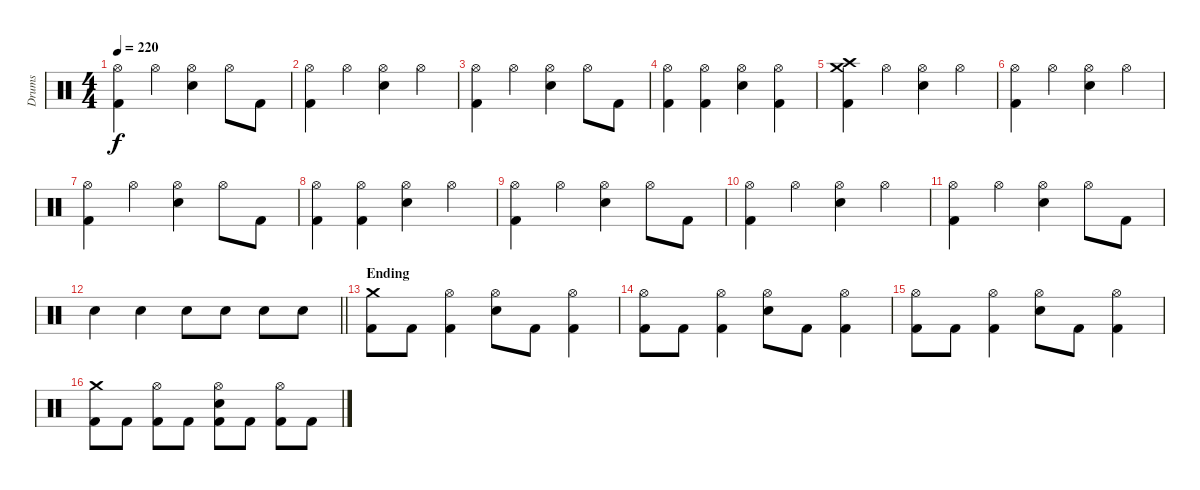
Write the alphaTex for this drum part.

\track ("Drums" "Drums") {instrument percussion}
\staff {score}
\articulation defaults
\ts (4 4)
\tempo 220
\clef neutral
\ks c
("Hi-Hat (open)" "Kick (hit) 2").4{dy f} "Hi-Hat (open)".4 ("Hi-Hat (open)" "Electric Snare (hit)").4 "Hi-Hat (open)".8 "Kick (hit) 2".8 |
("Hi-Hat (open)" "Kick (hit) 2").4 "Hi-Hat (open)".4 ("Hi-Hat (open)" "Electric Snare (hit)").4 "Hi-Hat (open)".4 |
("Hi-Hat (open)" "Kick (hit) 2").4 "Hi-Hat (open)".4 ("Hi-Hat (open)" "Electric Snare (hit)").4 "Hi-Hat (open)".8 "Kick (hit) 2".8 |
("Hi-Hat (open)" "Kick (hit) 2").4 ("Hi-Hat (open)" "Kick (hit) 2").4 ("Hi-Hat (open)" "Electric Snare (hit)").4 ("Hi-Hat (open)" "Kick (hit) 2").4 |
("Crash medium (hit)" "Crash high (hit)" "Kick (hit) 2").4 "Hi-Hat (open)".4 ("Hi-Hat (open)" "Electric Snare (hit)").4 "Hi-Hat (open)".4 |
("Hi-Hat (open)" "Kick (hit) 2").4 "Hi-Hat (open)".4 ("Hi-Hat (open)" "Electric Snare (hit)").4 "Hi-Hat (open)".4 |
("Hi-Hat (open)" "Kick (hit) 2").4 "Hi-Hat (open)".4 ("Hi-Hat (open)" "Electric Snare (hit)").4 "Hi-Hat (open)".8 "Kick (hit) 2".8 |
("Hi-Hat (open)" "Kick (hit) 2").4 ("Hi-Hat (open)" "Kick (hit) 2").4 ("Hi-Hat (open)" "Electric Snare (hit)").4 "Hi-Hat (open)".4 |
("Hi-Hat (open)" "Kick (hit) 2").4 "Hi-Hat (open)".4 ("Hi-Hat (open)" "Electric Snare (hit)").4 "Hi-Hat (open)".8 "Kick (hit) 2".8 |
("Hi-Hat (open)" "Kick (hit) 2").4 "Hi-Hat (open)".4 ("Hi-Hat (open)" "Electric Snare (hit)").4 "Hi-Hat (open)".4 |
("Hi-Hat (open)" "Kick (hit) 2").4 "Hi-Hat (open)".4 ("Hi-Hat (open)" "Electric Snare (hit)").4 "Hi-Hat (open)".8 "Kick (hit) 2".8 |
\barLineRight lightlight "Electric Snare (hit)".4 "Electric Snare (hit)".4 "Electric Snare (hit)".8 "Electric Snare (hit)".8 "Electric Snare (hit)".8 "Electric Snare (hit)".8
|
\section ("" "Ending")
("Crash medium (hit)" "Kick (hit) 2").8 "Kick (hit) 2".8 ("Hi-Hat (open)" "Kick (hit) 2").4 ("Hi-Hat (open)" "Electric Snare (hit)").8 "Kick (hit) 2".8 ("Hi-Hat (open)" "Kick (hit) 2").4 |
("Hi-Hat (open)" "Kick (hit) 2").8 "Kick (hit) 2".8 ("Hi-Hat (open)" "Kick (hit) 2").4 ("Hi-Hat (open)" "Electric Snare (hit)").8 "Kick (hit) 2".8 ("Hi-Hat (open)" "Kick (hit) 2").4 |
("Hi-Hat (open)" "Kick (hit) 2").8 "Kick (hit) 2".8 ("Hi-Hat (open)" "Kick (hit) 2").4 ("Hi-Hat (open)" "Electric Snare (hit)").8 "Kick (hit) 2".8 ("Hi-Hat (open)" "Kick (hit) 2").4 |
("Crash medium (hit)" "Kick (hit) 2").8 "Kick (hit) 2".8 ("Hi-Hat (open)" "Kick (hit) 2").8 "Kick (hit) 2".8 ("Hi-Hat (open)" "Electric Snare (hit)" "Kick (hit) 2").8 "Kick (hit) 2".8 ("Hi-Hat (open)" "Kick (hit) 2").8 "Kick (hit) 2".8
